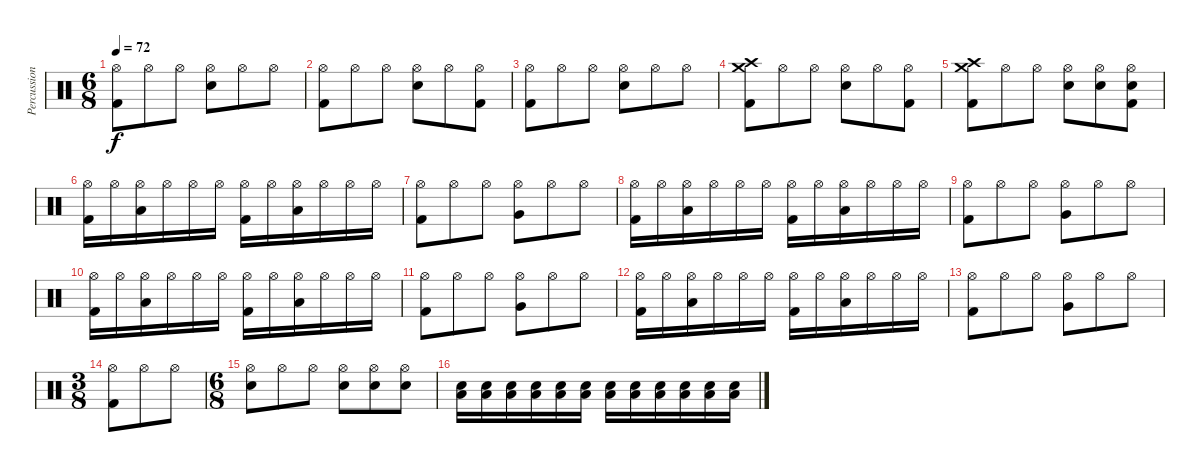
\track ("Percussioni" "Percussion") {instrument percussion}
\staff {score}
\articulation defaults
\ts (6 8)
\tempo 72
\clef neutral
\ks c
("Hi-Hat (open)" "Kick (hit) 2").8{dy f} "Hi-Hat (open)".8 "Hi-Hat (open)".8 ("Hi-Hat (open)" "Electric Snare (hit)").8 "Hi-Hat (open)".8 "Hi-Hat (open)".8 |
("Hi-Hat (open)" "Kick (hit) 2").8 "Hi-Hat (open)".8 "Hi-Hat (open)".8 ("Hi-Hat (open)" "Electric Snare (hit)").8 "Hi-Hat (open)".8 ("Hi-Hat (open)" "Kick (hit) 2").8 |
("Hi-Hat (open)" "Kick (hit) 2").8 "Hi-Hat (open)".8 "Hi-Hat (open)".8 ("Hi-Hat (open)" "Electric Snare (hit)").8 "Hi-Hat (open)".8 "Hi-Hat (open)".8 |
("Crash high (hit)" "Crash medium (hit)" "Kick (hit) 2").8 "Hi-Hat (open)".8 "Hi-Hat (open)".8 ("Hi-Hat (open)" "Electric Snare (hit)").8 "Hi-Hat (open)".8 ("Hi-Hat (open)" "Kick (hit) 2").8 |
("Crash high (hit)" "Crash medium (hit)" "Kick (hit) 2").8 "Hi-Hat (open)".8 "Hi-Hat (open)".8 ("Hi-Hat (open)" "Electric Snare (hit)").8 ("Hi-Hat (open)" "Electric Snare (hit)").8 ("Hi-Hat (open)" "Electric Snare (hit)" "Kick (hit) 2").8 |
("Hi-Hat (open)" "Kick (hit) 2").16 "Hi-Hat (open)".16 ("Hi-Hat (open)" "Low Tom (hit)").16 "Hi-Hat (open)".16 "Hi-Hat (open)".16 "Hi-Hat (open)".16 ("Hi-Hat (open)" "Kick (hit) 2").16 "Hi-Hat (open)".16 ("Hi-Hat (open)" "Low Tom (hit)").16 "Hi-Hat (open)".16 "Hi-Hat (open)".16 "Hi-Hat (open)".16 |
("Hi-Hat (open)" "Kick (hit) 2").8 "Hi-Hat (open)".8 "Hi-Hat (open)".8 ("Hi-Hat (open)" "Very Low Tom (hit)").8 "Hi-Hat (open)".8 "Hi-Hat (open)".8 |
("Hi-Hat (open)" "Kick (hit) 2").16 "Hi-Hat (open)".16 ("Hi-Hat (open)" "Low Tom (hit)").16 "Hi-Hat (open)".16 "Hi-Hat (open)".16 "Hi-Hat (open)".16 ("Hi-Hat (open)" "Kick (hit) 2").16 "Hi-Hat (open)".16 ("Hi-Hat (open)" "Low Tom (hit)").16 "Hi-Hat (open)".16 "Hi-Hat (open)".16 "Hi-Hat (open)".16 |
("Hi-Hat (open)" "Kick (hit) 2").8 "Hi-Hat (open)".8 "Hi-Hat (open)".8 ("Hi-Hat (open)" "Very Low Tom (hit)").8 "Hi-Hat (open)".8 "Hi-Hat (open)".8 |
("Hi-Hat (open)" "Kick (hit) 2").16 "Hi-Hat (open)".16 ("Hi-Hat (open)" "Low Tom (hit)").16 "Hi-Hat (open)".16 "Hi-Hat (open)".16 "Hi-Hat (open)".16 ("Hi-Hat (open)" "Kick (hit) 2").16 "Hi-Hat (open)".16 ("Hi-Hat (open)" "Low Tom (hit)").16 "Hi-Hat (open)".16 "Hi-Hat (open)".16 "Hi-Hat (open)".16 |
("Hi-Hat (open)" "Kick (hit) 2").8 "Hi-Hat (open)".8 "Hi-Hat (open)".8 ("Hi-Hat (open)" "Very Low Tom (hit)").8 "Hi-Hat (open)".8 "Hi-Hat (open)".8 |
("Hi-Hat (open)" "Kick (hit) 2").16 "Hi-Hat (open)".16 ("Hi-Hat (open)" "Low Tom (hit)").16 "Hi-Hat (open)".16 "Hi-Hat (open)".16 "Hi-Hat (open)".16 ("Hi-Hat (open)" "Kick (hit) 2").16 "Hi-Hat (open)".16 ("Hi-Hat (open)" "Low Tom (hit)").16 "Hi-Hat (open)".16 "Hi-Hat (open)".16 "Hi-Hat (open)".16 |
("Hi-Hat (open)" "Kick (hit) 2").8 "Hi-Hat (open)".8 "Hi-Hat (open)".8 ("Hi-Hat (open)" "Very Low Tom (hit)").8 "Hi-Hat (open)".8 "Hi-Hat (open)".8 |
\ts (3 8)
("Hi-Hat (open)" "Kick (hit) 2").8 "Hi-Hat (open)".8 "Hi-Hat (open)".8 |
\ts (6 8)
("Hi-Hat (open)" "Electric Snare (hit)").8 "Hi-Hat (open)".8 "Hi-Hat (open)".8 ("Hi-Hat (open)" "Electric Snare (hit)").8 ("Hi-Hat (open)" "Electric Snare (hit)").8 ("Hi-Hat (open)" "Electric Snare (hit)").8 |
("Electric Snare (hit)" "Low Tom (hit)").16 ("Electric Snare (hit)" "Low Tom (hit)").16 ("Electric Snare (hit)" "Low Tom (hit)").16 ("Electric Snare (hit)" "Low Tom (hit)").16 ("Electric Snare (hit)" "Low Tom (hit)").16 ("Electric Snare (hit)" "Low Tom (hit)").16 ("Electric Snare (hit)" "Low Tom (hit)").16 ("Electric Snare (hit)" "Low Tom (hit)").16 ("Electric Snare (hit)" "Low Tom (hit)").16 ("Electric Snare (hit)" "Low Tom (hit)").16 ("Electric Snare (hit)" "Low Tom (hit)").16 ("Electric Snare (hit)" "Low Tom (hit)").16
